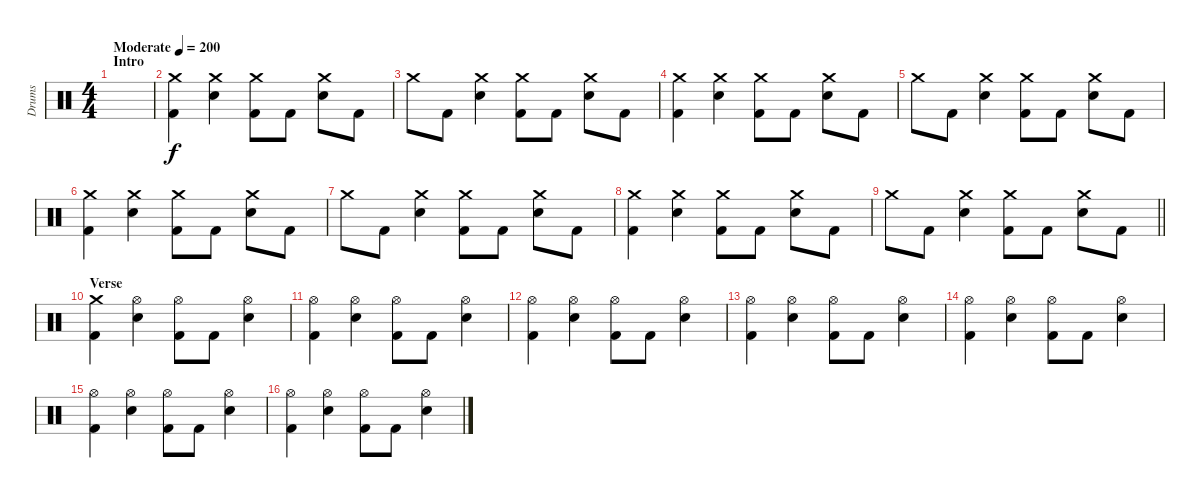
\track ("Drums" "Drums") {instrument percussion}
\staff {score}
\articulation defaults
\ts (4 4)
\section ("" "Intro")
\tempo (200 "Moderate")
\clef neutral
\ks c
|
("Crash medium (hit)" "Kick (hit) 2").4 ("Crash medium (hit)" "Electric Snare (hit)").4 ("Crash medium (hit)" "Kick (hit) 2").8 "Kick (hit) 2".8 ("Crash medium (hit)" "Electric Snare (hit)").8 "Kick (hit) 2".8 |
"Crash medium (hit)".8 "Kick (hit) 2".8 ("Crash medium (hit)" "Electric Snare (hit)").4 ("Crash medium (hit)" "Kick (hit) 2").8 "Kick (hit) 2".8 ("Crash medium (hit)" "Electric Snare (hit)").8 "Kick (hit) 2".8 |
("Crash medium (hit)" "Kick (hit) 2").4 ("Crash medium (hit)" "Electric Snare (hit)").4 ("Crash medium (hit)" "Kick (hit) 2").8 "Kick (hit) 2".8 ("Crash medium (hit)" "Electric Snare (hit)").8 "Kick (hit) 2".8 |
"Crash medium (hit)".8 "Kick (hit) 2".8 ("Crash medium (hit)" "Electric Snare (hit)").4 ("Crash medium (hit)" "Kick (hit) 2").8 "Kick (hit) 2".8 ("Crash medium (hit)" "Electric Snare (hit)").8 "Kick (hit) 2".8 |
("Crash medium (hit)" "Kick (hit) 2").4 ("Crash medium (hit)" "Electric Snare (hit)").4 ("Crash medium (hit)" "Kick (hit) 2").8 "Kick (hit) 2".8 ("Crash medium (hit)" "Electric Snare (hit)").8 "Kick (hit) 2".8 |
"Crash medium (hit)".8 "Kick (hit) 2".8 ("Crash medium (hit)" "Electric Snare (hit)").4 ("Crash medium (hit)" "Kick (hit) 2").8 "Kick (hit) 2".8 ("Crash medium (hit)" "Electric Snare (hit)").8 "Kick (hit) 2".8 |
("Crash medium (hit)" "Kick (hit) 2").4 ("Crash medium (hit)" "Electric Snare (hit)").4 ("Crash medium (hit)" "Kick (hit) 2").8 "Kick (hit) 2".8 ("Crash medium (hit)" "Electric Snare (hit)").8 "Kick (hit) 2".8 |
\barLineRight lightlight "Crash medium (hit)".8 "Kick (hit) 2".8
("Crash medium (hit)" "Electric Snare (hit)").4 ("Crash medium (hit)" "Kick (hit) 2").8 "Kick (hit) 2".8 ("Crash medium (hit)" "Electric Snare (hit)").8 "Kick (hit) 2".8 |
\section ("" "Verse")
("Crash medium (hit)" "Kick (hit) 2").4 ("Hi-Hat (open)" "Electric Snare (hit)").4 ("Hi-Hat (open)" "Kick (hit) 2").8 "Kick (hit) 2".8 ("Hi-Hat (open)" "Electric Snare (hit)").4 |
("Hi-Hat (open)" "Kick (hit) 2").4 ("Hi-Hat (open)" "Electric Snare (hit)").4 ("Hi-Hat (open)" "Kick (hit) 2").8 "Kick (hit) 2".8 ("Hi-Hat (open)" "Electric Snare (hit)").4 |
("Hi-Hat (open)" "Kick (hit) 2").4 ("Hi-Hat (open)" "Electric Snare (hit)").4 ("Hi-Hat (open)" "Kick (hit) 2").8 "Kick (hit) 2".8 ("Hi-Hat (open)" "Electric Snare (hit)").4 |
("Hi-Hat (open)" "Kick (hit) 2").4 ("Hi-Hat (open)" "Electric Snare (hit)").4 ("Hi-Hat (open)" "Kick (hit) 2").8 "Kick (hit) 2".8 ("Hi-Hat (open)" "Electric Snare (hit)").4 |
("Hi-Hat (open)" "Kick (hit) 2").4 ("Hi-Hat (open)" "Electric Snare (hit)").4 ("Hi-Hat (open)" "Kick (hit) 2").8 "Kick (hit) 2".8 ("Hi-Hat (open)" "Electric Snare (hit)").4 |
("Hi-Hat (open)" "Kick (hit) 2").4 ("Hi-Hat (open)" "Electric Snare (hit)").4 ("Hi-Hat (open)" "Kick (hit) 2").8 "Kick (hit) 2".8 ("Hi-Hat (open)" "Electric Snare (hit)").4 |
("Hi-Hat (open)" "Kick (hit) 2").4 ("Hi-Hat (open)" "Electric Snare (hit)").4 ("Hi-Hat (open)" "Kick (hit) 2").8 "Kick (hit) 2".8 ("Hi-Hat (open)" "Electric Snare (hit)").4
